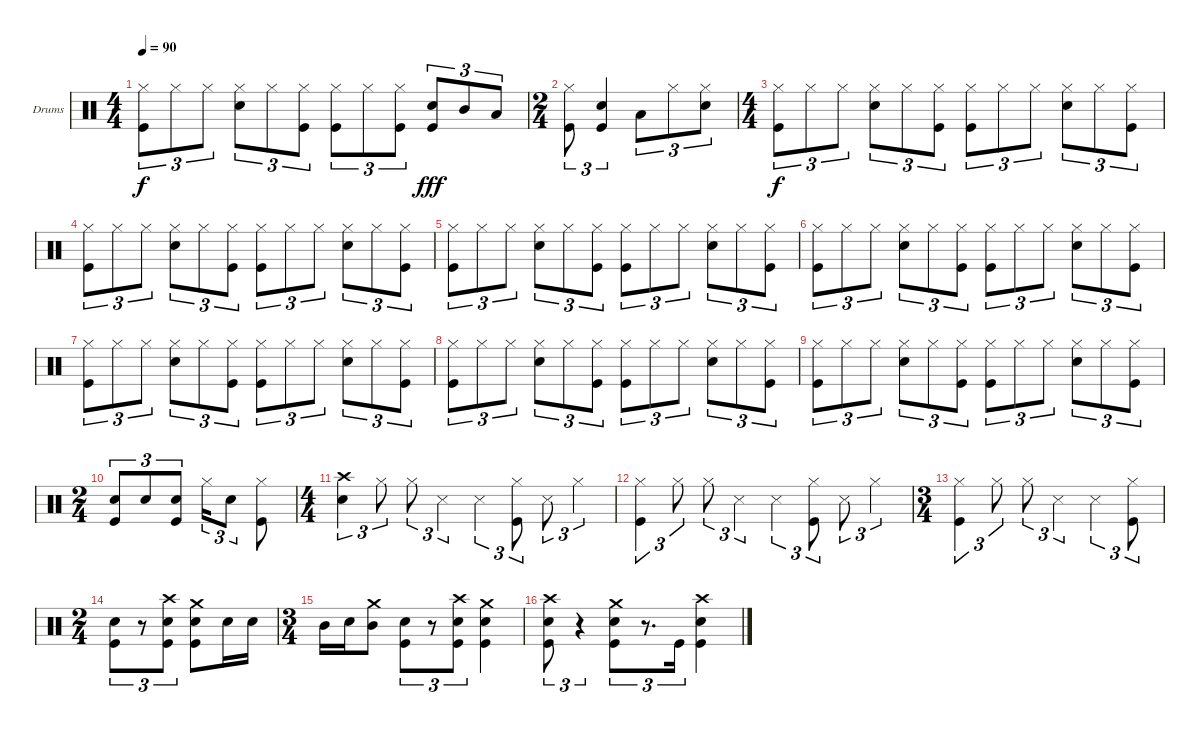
\defaultSystemsLayout 4
\bracketExtendMode groupsimilarinstruments
\firstSystemTrackNameOrientation horizontal
\otherSystemsTrackNameOrientation horizontal
\track ("Drumkit" "Drums") {instrument percussion}
\staff {score}
\articulation defaults
\ts (4 4)
\tempo 90
\clef neutral
\ks c
("Hi-Hat (closed)" "Kick (hit)").8{tu (3 2) dy f} "Hi-Hat (closed)".8{tu (3 2)} "Hi-Hat (closed)".8{tu (3 2)} ("Hi-Hat (closed)" "Snare (hit) 2").8{tu (3 2)} "Hi-Hat (closed)".8{tu (3 2)} ("Hi-Hat (closed)" "Kick (hit)").8{tu (3 2)} ("Hi-Hat (closed)" "Kick (hit)").8{tu (3 2)} "Hi-Hat (closed)".8{tu (3 2)} ("Hi-Hat (closed)" "Kick (hit)").8{tu (3 2)} ("Snare (hit) 2" "Kick (hit)").8{tu (3 2) dy fff} "Mid Tom (hit)".8{tu (3 2)} "Low Tom (hit)".8{tu (3 2)} |
\ts (2 4)
("Hi-Hat (closed)" "Kick (hit)").8{tu (3 2)} ("Kick (hit)" "Snare (hit) 2").4{tu (3 2)} "Low Tom (hit)".8{tu (3 2)} "Hi-Hat (closed)".8{tu (3 2)} ("Hi-Hat (closed)" "Snare (hit) 2").8{tu (3 2)} |
\ts (4 4)
("Hi-Hat (closed)" "Kick (hit)").8{tu (3 2) dy f} "Hi-Hat (closed)".8{tu (3 2)} "Hi-Hat (closed)".8{tu (3 2)} ("Hi-Hat (closed)" "Snare (hit) 2").8{tu (3 2)} "Hi-Hat (closed)".8{tu (3 2)} ("Hi-Hat (closed)" "Kick (hit)").8{tu (3 2)} ("Hi-Hat (closed)" "Kick (hit)").8{tu (3 2)} "Hi-Hat (closed)".8{tu (3 2)} "Hi-Hat (closed)".8{tu (3 2)} ("Hi-Hat (closed)" "Snare (hit) 2").8{tu (3 2)} "Hi-Hat (closed)".8{tu (3 2)} ("Hi-Hat (closed)" "Kick (hit)").8{tu (3 2)} |
("Hi-Hat (closed)" "Kick (hit)").8{tu (3 2)} "Hi-Hat (closed)".8{tu (3 2)} "Hi-Hat (closed)".8{tu (3 2)} ("Hi-Hat (closed)" "Snare (hit) 2").8{tu (3 2)} "Hi-Hat (closed)".8{tu (3 2)} ("Hi-Hat (closed)" "Kick (hit)").8{tu (3 2)} ("Hi-Hat (closed)" "Kick (hit)").8{tu (3 2)} "Hi-Hat (closed)".8{tu (3 2)} "Hi-Hat (closed)".8{tu (3 2)} ("Hi-Hat (closed)" "Snare (hit) 2").8{tu (3 2)} "Hi-Hat (closed)".8{tu (3 2)} ("Hi-Hat (closed)" "Kick (hit)").8{tu (3 2)} |
("Hi-Hat (closed)" "Kick (hit)").8{tu (3 2)} "Hi-Hat (closed)".8{tu (3 2)} "Hi-Hat (closed)".8{tu (3 2)} ("Hi-Hat (closed)" "Snare (hit) 2").8{tu (3 2)} "Hi-Hat (closed)".8{tu (3 2)} ("Hi-Hat (closed)" "Kick (hit)").8{tu (3 2)} ("Hi-Hat (closed)" "Kick (hit)").8{tu (3 2)} "Hi-Hat (closed)".8{tu (3 2)} "Hi-Hat (closed)".8{tu (3 2)} ("Hi-Hat (closed)" "Snare (hit) 2").8{tu (3 2)} "Hi-Hat (closed)".8{tu (3 2)} ("Hi-Hat (closed)" "Kick (hit)").8{tu (3 2)} |
("Hi-Hat (closed)" "Kick (hit)").8{tu (3 2)} "Hi-Hat (closed)".8{tu (3 2)} "Hi-Hat (closed)".8{tu (3 2)} ("Hi-Hat (closed)" "Snare (hit) 2").8{tu (3 2)} "Hi-Hat (closed)".8{tu (3 2)} ("Hi-Hat (closed)" "Kick (hit)").8{tu (3 2)} ("Hi-Hat (closed)" "Kick (hit)").8{tu (3 2)} "Hi-Hat (closed)".8{tu (3 2)} "Hi-Hat (closed)".8{tu (3 2)} ("Hi-Hat (closed)" "Snare (hit) 2").8{tu (3 2)} "Hi-Hat (closed)".8{tu (3 2)} ("Hi-Hat (closed)" "Kick (hit)").8{tu (3 2)} |
("Hi-Hat (closed)" "Kick (hit)").8{tu (3 2)} "Hi-Hat (closed)".8{tu (3 2)} "Hi-Hat (closed)".8{tu (3 2)} ("Hi-Hat (closed)" "Snare (hit) 2").8{tu (3 2)} "Hi-Hat (closed)".8{tu (3 2)} ("Hi-Hat (closed)" "Kick (hit)").8{tu (3 2)} ("Hi-Hat (closed)" "Kick (hit)").8{tu (3 2)} "Hi-Hat (closed)".8{tu (3 2)} "Hi-Hat (closed)".8{tu (3 2)} ("Hi-Hat (closed)" "Snare (hit) 2").8{tu (3 2)} "Hi-Hat (closed)".8{tu (3 2)} ("Hi-Hat (closed)" "Kick (hit)").8{tu (3 2)} |
("Hi-Hat (closed)" "Kick (hit)").8{tu (3 2)} "Hi-Hat (closed)".8{tu (3 2)} "Hi-Hat (closed)".8{tu (3 2)} ("Hi-Hat (closed)" "Snare (hit) 2").8{tu (3 2)} "Hi-Hat (closed)".8{tu (3 2)} ("Hi-Hat (closed)" "Kick (hit)").8{tu (3 2)} ("Hi-Hat (closed)" "Kick (hit)").8{tu (3 2)} "Hi-Hat (closed)".8{tu (3 2)} "Hi-Hat (closed)".8{tu (3 2)} ("Hi-Hat (closed)" "Snare (hit) 2").8{tu (3 2)} "Hi-Hat (closed)".8{tu (3 2)} ("Hi-Hat (closed)" "Kick (hit)").8{tu (3 2)} |
("Hi-Hat (closed)" "Kick (hit)").8{tu (3 2)} "Hi-Hat (closed)".8{tu (3 2)} "Hi-Hat (closed)".8{tu (3 2)} ("Hi-Hat (closed)" "Snare (hit) 2").8{tu (3 2)} "Hi-Hat (closed)".8{tu (3 2)} ("Hi-Hat (closed)" "Kick (hit)").8{tu (3 2)} ("Hi-Hat (closed)" "Kick (hit)").8{tu (3 2)} "Hi-Hat (closed)".8{tu (3 2)} "Hi-Hat (closed)".8{tu (3 2)} ("Hi-Hat (closed)" "Snare (hit) 2").8{tu (3 2)} "Hi-Hat (closed)".8{tu (3 2)} ("Hi-Hat (closed)" "Kick (hit)").8{tu (3 2)} |
\ts (2 4)
("Kick (hit)" "Snare (hit) 2").8{tu (3 2)} "Snare (hit) 2".8{tu (3 2)} ("Kick (hit)" "Snare (hit) 2").8{tu (3 2)} "Hi-Hat (closed)".16{tu (3 2)} "Snare (hit) 2".8{tu (3 2)} ("Kick (hit)" "Hi-Hat (closed)").8 |
\ts (4 4)
("Snare (hit) 2" "Crash high (hit)").4{tu (3 2)} "Hi-Hat (closed)".8{tu (3 2)} "Hi-Hat (closed)".8{tu (3 2)} "Snare (side stick) 3".4{tu (3 2)} "Snare (side stick) 3".4{tu (3 2)} ("Kick (hit)" "Hi-Hat (closed)").8{tu (3 2)} "Snare (side stick) 3".8{tu (3 2)} "Hi-Hat (closed)".4{tu (3 2)} |
("Hi-Hat (closed)" "Kick (hit)").4{tu (3 2)} "Hi-Hat (closed)".8{tu (3 2)} "Hi-Hat (closed)".8{tu (3 2)} "Snare (side stick) 3".4{tu (3 2)} "Snare (side stick) 3".4{tu (3 2)} ("Kick (hit)" "Hi-Hat (closed)").8{tu (3 2)} "Snare (side stick) 3".8{tu (3 2)} "Hi-Hat (closed)".4{tu (3 2)} |
\ts (3 4)
("Hi-Hat (closed)" "Kick (hit)").4{tu (3 2)} "Hi-Hat (closed)".8{tu (3 2)} "Hi-Hat (closed)".8{tu (3 2)} "Snare (side stick) 3".4{tu (3 2)} "Snare (side stick) 3".4{tu (3 2)} ("Kick (hit)" "Hi-Hat (closed)").8{tu (3 2)} |
\ts (2 4)
("Snare (hit) 2" "Kick (hit)").8{tu (3 2)} r.8{tu (3 2)} ("Snare (hit) 2" "Kick (hit)" "Crash high (hit)").8{tu (3 2)} ("Snare (hit) 2" "Kick (hit)" "Crash medium (hit)").8 "Snare (hit) 2".16 "Snare (hit) 2".16 |
\ts (3 4)
"Mid Tom (hit)".16 "Snare (hit) 2".16 ("Mid Tom (hit)" "Crash medium (hit)").8 ("Snare (hit) 2" "Kick (hit)").8{tu (3 2)} r.8{tu (3 2)} ("Snare (hit) 2" "Kick (hit)" "Crash high (hit)").8{tu (3 2)} ("Snare (hit) 2" "Kick (hit)" "Crash medium (hit)").4 |
("Snare (hit) 2" "Kick (hit)" "Crash high (hit)").8{tu (3 2)} r.4{tu (3 2)} ("Snare (hit) 2" "Kick (hit)" "Crash medium (hit)").8{tu (3 2)} r.8{d tu (3 2)} "Kick (hit)".16{tu (3 2)} ("Snare (hit) 2" "Crash high (hit)" "Kick (hit)").4
